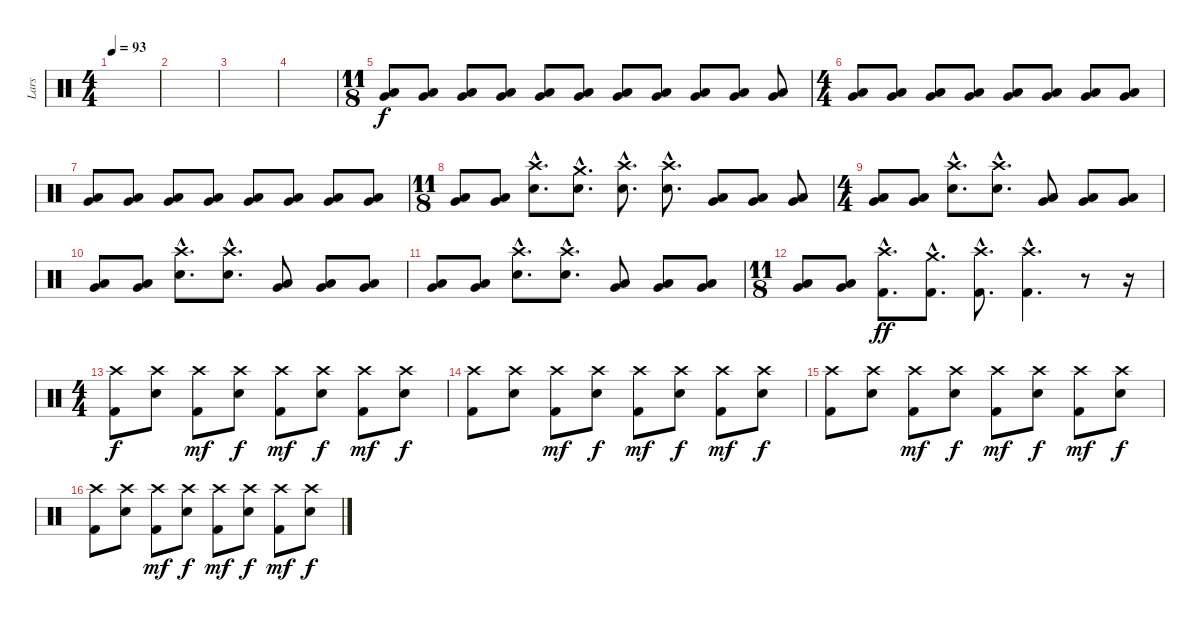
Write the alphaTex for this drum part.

\track ("Lars" "Lars") {instrument percussion}
\staff {score}
\articulation defaults
\ts (4 4)
\tempo 93
\clef neutral
\ks c
|
|
|
|
\ts (11 8)
("Very Low Tom (hit)" "Low Floor Tom (hit)").8 ("Very Low Tom (hit)" "Low Floor Tom (hit)").8 ("Very Low Tom (hit)" "Low Floor Tom (hit)").8 ("Very Low Tom (hit)" "Low Floor Tom (hit)").8 ("Very Low Tom (hit)" "Low Floor Tom (hit)").8 ("Very Low Tom (hit)" "Low Floor Tom (hit)").8 ("Very Low Tom (hit)" "Low Floor Tom (hit)").8 ("Very Low Tom (hit)" "Low Floor Tom (hit)").8 ("Very Low Tom (hit)" "Low Floor Tom (hit)").8 ("Very Low Tom (hit)" "Low Floor Tom (hit)").8 ("Very Low Tom (hit)" "Low Floor Tom (hit)").8 |
\ts (4 4)
("Very Low Tom (hit)" "Low Floor Tom (hit)").8 ("Very Low Tom (hit)" "Low Floor Tom (hit)").8 ("Very Low Tom (hit)" "Low Floor Tom (hit)").8 ("Very Low Tom (hit)" "Low Floor Tom (hit)").8 ("Very Low Tom (hit)" "Low Floor Tom (hit)").8 ("Very Low Tom (hit)" "Low Floor Tom (hit)").8 ("Very Low Tom (hit)" "Low Floor Tom (hit)").8 ("Very Low Tom (hit)" "Low Floor Tom (hit)").8 |
("Very Low Tom (hit)" "Low Floor Tom (hit)").8 ("Very Low Tom (hit)" "Low Floor Tom (hit)").8 ("Very Low Tom (hit)" "Low Floor Tom (hit)").8 ("Very Low Tom (hit)" "Low Floor Tom (hit)").8 ("Very Low Tom (hit)" "Low Floor Tom (hit)").8 ("Very Low Tom (hit)" "Low Floor Tom (hit)").8 ("Very Low Tom (hit)" "Low Floor Tom (hit)").8 ("Very Low Tom (hit)" "Low Floor Tom (hit)").8 |
\ts (11 8)
("Very Low Tom (hit)" "Low Floor Tom (hit)").8 ("Very Low Tom (hit)" "Low Floor Tom (hit)").8 ("Crash high (hit)"{hac} "Snare (hit) 2"{hac}).8{d} ("Crash medium (hit)"{hac} "Snare (hit) 2"{hac}).8{d} ("Crash high (hit)"{hac} "Snare (hit) 2"{hac}).8{d} ("Crash high (hit)"{hac} "Snare (hit) 2"{hac}).8{d} ("Very Low Tom (hit)" "Low Floor Tom (hit)").8 ("Very Low Tom (hit)" "Low Floor Tom (hit)").8 ("Very Low Tom (hit)" "Low Floor Tom (hit)").8 |
\ts (4 4)
("Very Low Tom (hit)" "Low Floor Tom (hit)").8 ("Very Low Tom (hit)" "Low Floor Tom (hit)").8 ("Crash high (hit)"{hac} "Snare (hit) 2"{hac}).8{d} ("Crash high (hit)"{hac} "Snare (hit) 2"{hac}).8{d} ("Very Low Tom (hit)" "Low Floor Tom (hit)").8 ("Very Low Tom (hit)" "Low Floor Tom (hit)").8 ("Very Low Tom (hit)" "Low Floor Tom (hit)").8 |
("Very Low Tom (hit)" "Low Floor Tom (hit)").8 ("Very Low Tom (hit)" "Low Floor Tom (hit)").8 ("Crash high (hit)"{hac} "Snare (hit) 2"{hac}).8{d} ("Crash high (hit)"{hac} "Snare (hit) 2"{hac}).8{d} ("Very Low Tom (hit)" "Low Floor Tom (hit)").8 ("Very Low Tom (hit)" "Low Floor Tom (hit)").8 ("Very Low Tom (hit)" "Low Floor Tom (hit)").8 |
("Very Low Tom (hit)" "Low Floor Tom (hit)").8 ("Very Low Tom (hit)" "Low Floor Tom (hit)").8 ("Crash high (hit)"{hac} "Snare (hit) 2"{hac}).8{d} ("Crash high (hit)"{hac} "Snare (hit) 2"{hac}).8{d} ("Very Low Tom (hit)" "Low Floor Tom (hit)").8 ("Very Low Tom (hit)" "Low Floor Tom (hit)").8 ("Very Low Tom (hit)" "Low Floor Tom (hit)").8 |
\ts (11 8)
("Very Low Tom (hit)" "Low Floor Tom (hit)").8 ("Very Low Tom (hit)" "Low Floor Tom (hit)").8 ("Crash high (hit)"{hac} "Kick (hit) 2"{hac}).8{d dy ff} ("Crash medium (hit)"{hac} "Kick (hit) 2"{hac}).8{d} ("Crash high (hit)"{hac} "Kick (hit) 2"{hac}).8{d} ("Crash high (hit)"{hac} "Kick (hit) 2"{hac}).4{d} r.8 r.16 |
\ts (4 4)
("Crash high (hit)" "Kick (hit) 2").8{dy f} ("Crash high (hit)" "Snare (hit) 2").8 ("Crash high (hit)" "Kick (hit) 2").8{dy mf} ("Crash high (hit)" "Snare (hit) 2").8{dy f} ("Crash high (hit)" "Kick (hit) 2").8{dy mf} ("Crash high (hit)" "Snare (hit) 2").8{dy f} ("Crash high (hit)" "Kick (hit) 2").8{dy mf} ("Crash high (hit)" "Snare (hit) 2").8{dy f} |
("Crash high (hit)" "Kick (hit) 2").8 ("Crash high (hit)" "Snare (hit) 2").8 ("Crash high (hit)" "Kick (hit) 2").8{dy mf} ("Crash high (hit)" "Snare (hit) 2").8{dy f} ("Crash high (hit)" "Kick (hit) 2").8{dy mf} ("Crash high (hit)" "Snare (hit) 2").8{dy f} ("Crash high (hit)" "Kick (hit) 2").8{dy mf} ("Crash high (hit)" "Snare (hit) 2").8{dy f} |
("Crash high (hit)" "Kick (hit) 2").8 ("Crash high (hit)" "Snare (hit) 2").8 ("Crash high (hit)" "Kick (hit) 2").8{dy mf} ("Crash high (hit)" "Snare (hit) 2").8{dy f} ("Crash high (hit)" "Kick (hit) 2").8{dy mf} ("Crash high (hit)" "Snare (hit) 2").8{dy f} ("Crash high (hit)" "Kick (hit) 2").8{dy mf} ("Crash high (hit)" "Snare (hit) 2").8{dy f} |
("Crash high (hit)" "Kick (hit) 2").8 ("Crash high (hit)" "Snare (hit) 2").8 ("Crash high (hit)" "Kick (hit) 2").8{dy mf} ("Crash high (hit)" "Snare (hit) 2").8{dy f} ("Crash high (hit)" "Kick (hit) 2").8{dy mf} ("Crash high (hit)" "Snare (hit) 2").8{dy f} ("Crash high (hit)" "Kick (hit) 2").8{dy mf} ("Crash high (hit)" "Snare (hit) 2").8{dy f}
